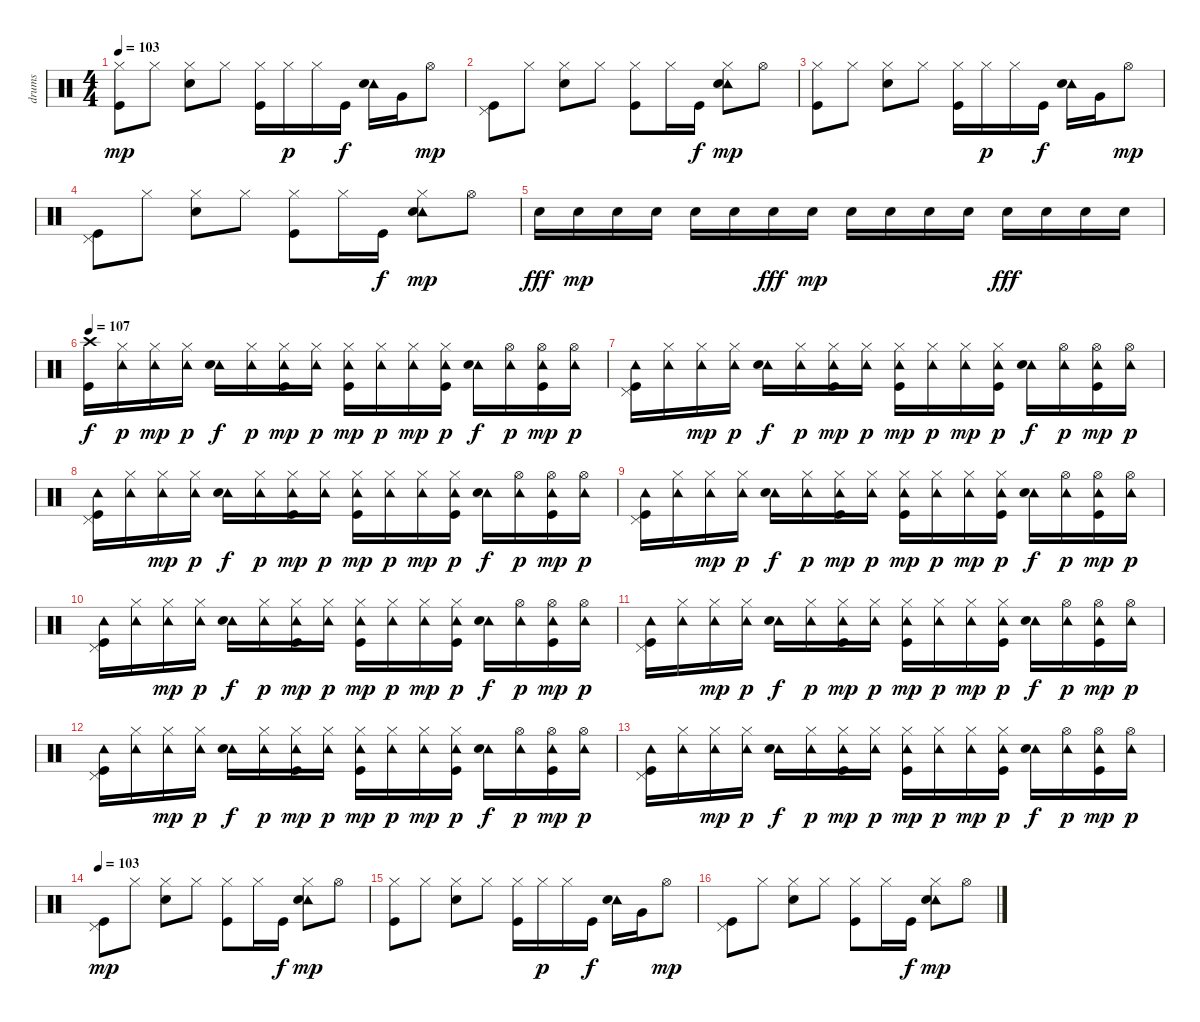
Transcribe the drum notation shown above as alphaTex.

\track ("drums" "drums") {instrument percussion}
\staff {score}
\articulation defaults
\ts (4 4)
\tempo 103
\clef neutral
\ks c
("Hi-Hat (closed)" "Kick (hit)").8{dy mp} "Hi-Hat (closed)".8 ("Hi-Hat (closed)" "Electric Snare (hit)").8 "Hi-Hat (closed)".8 ("Hi-Hat (closed)" "Kick (hit)").16 "Hi-Hat (closed)".16{dy p} "Hi-Hat (closed)".16 "Kick (hit)".16{dy f} ("Tambourine (hit)" "Electric Snare (hit)").16 "Very Low Tom (hit)".16 "Hi-Hat (open)".8{dy mp} |
("Pedal Hi-Hat (hit)" "Kick (hit)").8 "Hi-Hat (closed)".8 ("Hi-Hat (closed)" "Electric Snare (hit)").8 "Hi-Hat (closed)".8 ("Hi-Hat (closed)" "Kick (hit)").8 "Hi-Hat (closed)".16 "Kick (hit)".16{dy f} ("Tambourine (hit)" "Hi-Hat (closed)" "Electric Snare (hit)").8{dy mp} "Hi-Hat (open)".8 |
("Hi-Hat (closed)" "Kick (hit)").8 "Hi-Hat (closed)".8 ("Hi-Hat (closed)" "Electric Snare (hit)").8 "Hi-Hat (closed)".8 ("Hi-Hat (closed)" "Kick (hit)").16 "Hi-Hat (closed)".16{dy p} "Hi-Hat (closed)".16 "Kick (hit)".16{dy f} ("Tambourine (hit)" "Electric Snare (hit)").16 "Very Low Tom (hit)".16 "Hi-Hat (open)".8{dy mp} |
("Pedal Hi-Hat (hit)" "Kick (hit)").8 "Hi-Hat (closed)".8 ("Hi-Hat (closed)" "Electric Snare (hit)").8 "Hi-Hat (closed)".8 ("Hi-Hat (closed)" "Kick (hit)").8 "Hi-Hat (closed)".16 "Kick (hit)".16{dy f} ("Tambourine (hit)" "Hi-Hat (closed)" "Electric Snare (hit)").8{dy mp} "Hi-Hat (open)".8 |
"Electric Snare (hit)".16{dy fff} "Electric Snare (hit)".16{dy mp} "Electric Snare (hit)".16 "Electric Snare (hit)".16 "Electric Snare (hit)".16 "Electric Snare (hit)".16 "Electric Snare (hit)".16{dy fff} "Electric Snare (hit)".16{dy mp} "Electric Snare (hit)".16 "Electric Snare (hit)".16 "Electric Snare (hit)".16 "Electric Snare (hit)".16 "Electric Snare (hit)".16{dy fff} "Electric Snare (hit)".16 "Electric Snare (hit)".16 "Electric Snare (hit)".16 |
\tempo 107
("Crash high (hit)" "Kick (hit)").16{dy f} ("Tambourine (hit)" "Hi-Hat (closed)").16{dy p} ("Tambourine (hit)" "Hi-Hat (closed)").16{dy mp} ("Tambourine (hit)" "Hi-Hat (closed)").16{dy p} ("Tambourine (hit)" "Electric Snare (hit)").16{dy f} ("Tambourine (hit)" "Hi-Hat (closed)").16{dy p} ("Tambourine (hit)" "Hi-Hat (closed)" "Kick (hit)").16{dy mp} ("Tambourine (hit)" "Hi-Hat (closed)").16{dy p} ("Tambourine (hit)" "Hi-Hat (closed)" "Kick (hit)").16{dy mp} ("Tambourine (hit)" "Hi-Hat (closed)").16{dy p} ("Tambourine (hit)" "Hi-Hat (closed)").16{dy mp} ("Tambourine (hit)" "Hi-Hat (closed)" "Kick (hit)").16{dy p} ("Tambourine (hit)" "Electric Snare (hit)").16{dy f} ("Tambourine (hit)" "Hi-Hat (open)").16{dy p} ("Tambourine (hit)" "Hi-Hat (open)" "Kick (hit)").16{dy mp} ("Tambourine (hit)" "Hi-Hat (open)").16{dy p} |
("Tambourine (hit)" "Pedal Hi-Hat (hit)" "Kick (hit)").16 ("Tambourine (hit)" "Hi-Hat (closed)").16 ("Tambourine (hit)" "Hi-Hat (closed)").16{dy mp} ("Tambourine (hit)" "Hi-Hat (closed)").16{dy p} ("Tambourine (hit)" "Electric Snare (hit)").16{dy f} ("Tambourine (hit)" "Hi-Hat (closed)").16{dy p} ("Tambourine (hit)" "Hi-Hat (closed)" "Kick (hit)").16{dy mp} ("Tambourine (hit)" "Hi-Hat (closed)").16{dy p} ("Tambourine (hit)" "Hi-Hat (closed)" "Kick (hit)").16{dy mp} ("Tambourine (hit)" "Hi-Hat (closed)").16{dy p} ("Tambourine (hit)" "Hi-Hat (closed)").16{dy mp} ("Tambourine (hit)" "Hi-Hat (closed)" "Kick (hit)").16{dy p} ("Tambourine (hit)" "Electric Snare (hit)").16{dy f} ("Tambourine (hit)" "Hi-Hat (open)").16{dy p} ("Tambourine (hit)" "Hi-Hat (open)" "Kick (hit)").16{dy mp} ("Tambourine (hit)" "Hi-Hat (open)").16{dy p} |
("Tambourine (hit)" "Pedal Hi-Hat (hit)" "Kick (hit)").16 ("Tambourine (hit)" "Hi-Hat (closed)").16 ("Tambourine (hit)" "Hi-Hat (closed)").16{dy mp} ("Tambourine (hit)" "Hi-Hat (closed)").16{dy p} ("Tambourine (hit)" "Electric Snare (hit)").16{dy f} ("Tambourine (hit)" "Hi-Hat (closed)").16{dy p} ("Tambourine (hit)" "Hi-Hat (closed)" "Kick (hit)").16{dy mp} ("Tambourine (hit)" "Hi-Hat (closed)").16{dy p} ("Tambourine (hit)" "Hi-Hat (closed)" "Kick (hit)").16{dy mp} ("Tambourine (hit)" "Hi-Hat (closed)").16{dy p} ("Tambourine (hit)" "Hi-Hat (closed)").16{dy mp} ("Tambourine (hit)" "Hi-Hat (closed)" "Kick (hit)").16{dy p} ("Tambourine (hit)" "Electric Snare (hit)").16{dy f} ("Tambourine (hit)" "Hi-Hat (open)").16{dy p} ("Tambourine (hit)" "Hi-Hat (open)" "Kick (hit)").16{dy mp} ("Tambourine (hit)" "Hi-Hat (open)").16{dy p} |
("Tambourine (hit)" "Pedal Hi-Hat (hit)" "Kick (hit)").16 ("Tambourine (hit)" "Hi-Hat (closed)").16 ("Tambourine (hit)" "Hi-Hat (closed)").16{dy mp} ("Tambourine (hit)" "Hi-Hat (closed)").16{dy p} ("Tambourine (hit)" "Electric Snare (hit)").16{dy f} ("Tambourine (hit)" "Hi-Hat (closed)").16{dy p} ("Tambourine (hit)" "Hi-Hat (closed)" "Kick (hit)").16{dy mp} ("Tambourine (hit)" "Hi-Hat (closed)").16{dy p} ("Tambourine (hit)" "Hi-Hat (closed)" "Kick (hit)").16{dy mp} ("Tambourine (hit)" "Hi-Hat (closed)").16{dy p} ("Tambourine (hit)" "Hi-Hat (closed)").16{dy mp} ("Tambourine (hit)" "Hi-Hat (closed)" "Kick (hit)").16{dy p} ("Tambourine (hit)" "Electric Snare (hit)").16{dy f} ("Tambourine (hit)" "Hi-Hat (open)").16{dy p} ("Tambourine (hit)" "Hi-Hat (open)" "Kick (hit)").16{dy mp} ("Tambourine (hit)" "Hi-Hat (open)").16{dy p} |
("Tambourine (hit)" "Pedal Hi-Hat (hit)" "Kick (hit)").16 ("Tambourine (hit)" "Hi-Hat (closed)").16 ("Tambourine (hit)" "Hi-Hat (closed)").16{dy mp} ("Tambourine (hit)" "Hi-Hat (closed)").16{dy p} ("Tambourine (hit)" "Electric Snare (hit)").16{dy f} ("Tambourine (hit)" "Hi-Hat (closed)").16{dy p} ("Tambourine (hit)" "Hi-Hat (closed)" "Kick (hit)").16{dy mp} ("Tambourine (hit)" "Hi-Hat (closed)").16{dy p} ("Tambourine (hit)" "Hi-Hat (closed)" "Kick (hit)").16{dy mp} ("Tambourine (hit)" "Hi-Hat (closed)").16{dy p} ("Tambourine (hit)" "Hi-Hat (closed)").16{dy mp} ("Tambourine (hit)" "Hi-Hat (closed)" "Kick (hit)").16{dy p} ("Tambourine (hit)" "Electric Snare (hit)").16{dy f} ("Tambourine (hit)" "Hi-Hat (open)").16{dy p} ("Tambourine (hit)" "Hi-Hat (open)" "Kick (hit)").16{dy mp} ("Tambourine (hit)" "Hi-Hat (open)").16{dy p} |
("Tambourine (hit)" "Pedal Hi-Hat (hit)" "Kick (hit)").16 ("Tambourine (hit)" "Hi-Hat (closed)").16 ("Tambourine (hit)" "Hi-Hat (closed)").16{dy mp} ("Tambourine (hit)" "Hi-Hat (closed)").16{dy p} ("Tambourine (hit)" "Electric Snare (hit)").16{dy f} ("Tambourine (hit)" "Hi-Hat (closed)").16{dy p} ("Tambourine (hit)" "Hi-Hat (closed)" "Kick (hit)").16{dy mp} ("Tambourine (hit)" "Hi-Hat (closed)").16{dy p} ("Tambourine (hit)" "Hi-Hat (closed)" "Kick (hit)").16{dy mp} ("Tambourine (hit)" "Hi-Hat (closed)").16{dy p} ("Tambourine (hit)" "Hi-Hat (closed)").16{dy mp} ("Tambourine (hit)" "Hi-Hat (closed)" "Kick (hit)").16{dy p} ("Tambourine (hit)" "Electric Snare (hit)").16{dy f} ("Tambourine (hit)" "Hi-Hat (open)").16{dy p} ("Tambourine (hit)" "Hi-Hat (open)" "Kick (hit)").16{dy mp} ("Tambourine (hit)" "Hi-Hat (open)").16{dy p} |
("Tambourine (hit)" "Pedal Hi-Hat (hit)" "Kick (hit)").16 ("Tambourine (hit)" "Hi-Hat (closed)").16 ("Tambourine (hit)" "Hi-Hat (closed)").16{dy mp} ("Tambourine (hit)" "Hi-Hat (closed)").16{dy p} ("Tambourine (hit)" "Electric Snare (hit)").16{dy f} ("Tambourine (hit)" "Hi-Hat (closed)").16{dy p} ("Tambourine (hit)" "Hi-Hat (closed)" "Kick (hit)").16{dy mp} ("Tambourine (hit)" "Hi-Hat (closed)").16{dy p} ("Tambourine (hit)" "Hi-Hat (closed)" "Kick (hit)").16{dy mp} ("Tambourine (hit)" "Hi-Hat (closed)").16{dy p} ("Tambourine (hit)" "Hi-Hat (closed)").16{dy mp} ("Tambourine (hit)" "Hi-Hat (closed)" "Kick (hit)").16{dy p} ("Tambourine (hit)" "Electric Snare (hit)").16{dy f} ("Tambourine (hit)" "Hi-Hat (open)").16{dy p} ("Tambourine (hit)" "Hi-Hat (open)" "Kick (hit)").16{dy mp} ("Tambourine (hit)" "Hi-Hat (open)").16{dy p} |
("Tambourine (hit)" "Pedal Hi-Hat (hit)" "Kick (hit)").16 ("Tambourine (hit)" "Hi-Hat (closed)").16 ("Tambourine (hit)" "Hi-Hat (closed)").16{dy mp} ("Tambourine (hit)" "Hi-Hat (closed)").16{dy p} ("Tambourine (hit)" "Electric Snare (hit)").16{dy f} ("Tambourine (hit)" "Hi-Hat (closed)").16{dy p} ("Tambourine (hit)" "Hi-Hat (closed)" "Kick (hit)").16{dy mp} ("Tambourine (hit)" "Hi-Hat (closed)").16{dy p} ("Tambourine (hit)" "Hi-Hat (closed)" "Kick (hit)").16{dy mp} ("Tambourine (hit)" "Hi-Hat (closed)").16{dy p} ("Tambourine (hit)" "Hi-Hat (closed)").16{dy mp} ("Tambourine (hit)" "Hi-Hat (closed)" "Kick (hit)").16{dy p} ("Tambourine (hit)" "Electric Snare (hit)").16{dy f} ("Tambourine (hit)" "Hi-Hat (open)").16{dy p} ("Tambourine (hit)" "Hi-Hat (open)" "Kick (hit)").16{dy mp} ("Tambourine (hit)" "Hi-Hat (open)").16{dy p} |
\tempo 103
("Pedal Hi-Hat (hit)" "Kick (hit)").8{dy mp} "Hi-Hat (closed)".8 ("Hi-Hat (closed)" "Electric Snare (hit)").8 "Hi-Hat (closed)".8 ("Hi-Hat (closed)" "Kick (hit)").8 "Hi-Hat (closed)".16 "Kick (hit)".16{dy f} ("Tambourine (hit)" "Hi-Hat (closed)" "Electric Snare (hit)").8{dy mp} "Hi-Hat (open)".8 |
("Hi-Hat (closed)" "Kick (hit)").8 "Hi-Hat (closed)".8 ("Hi-Hat (closed)" "Electric Snare (hit)").8 "Hi-Hat (closed)".8 ("Hi-Hat (closed)" "Kick (hit)").16 "Hi-Hat (closed)".16{dy p} "Hi-Hat (closed)".16 "Kick (hit)".16{dy f} ("Tambourine (hit)" "Electric Snare (hit)").16 "Very Low Tom (hit)".16 "Hi-Hat (open)".8{dy mp} |
("Pedal Hi-Hat (hit)" "Kick (hit)").8 "Hi-Hat (closed)".8 ("Hi-Hat (closed)" "Electric Snare (hit)").8 "Hi-Hat (closed)".8 ("Hi-Hat (closed)" "Kick (hit)").8 "Hi-Hat (closed)".16 "Kick (hit)".16{dy f} ("Tambourine (hit)" "Hi-Hat (closed)" "Electric Snare (hit)").8{dy mp} "Hi-Hat (open)".8
